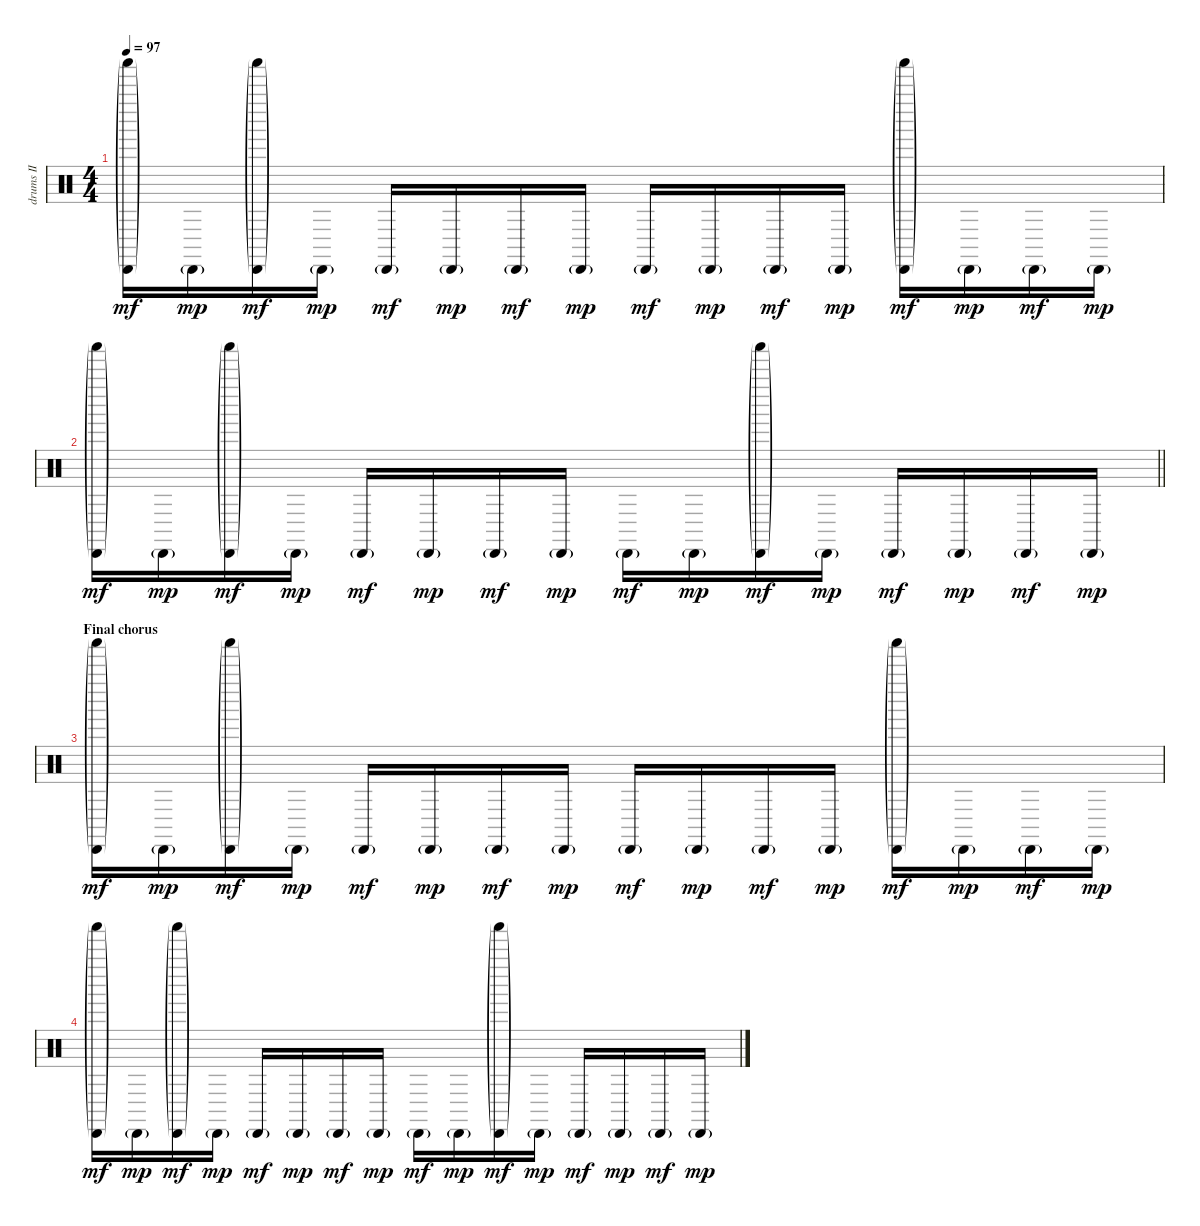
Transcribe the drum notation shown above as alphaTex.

\track ("drums II" "drums II") {instrument percussion}
\staff {score}
\articulation defaults
\ts (4 4)
\tempo 97
\clef neutral
\ks c
("Shaker (hit)"{g} "Cabasa (hit)"{g}).16{dy mf} "Cabasa (hit)"{g}.16{dy mp} ("Shaker (hit)"{g} "Cabasa (hit)"{g}).16{dy mf} "Cabasa (hit)"{g}.16{dy mp} "Cabasa (hit)"{g}.16{dy mf} "Cabasa (hit)"{g}.16{dy mp} "Cabasa (hit)"{g}.16{dy mf} "Cabasa (hit)"{g}.16{dy mp} "Cabasa (hit)"{g}.16{dy mf} "Cabasa (hit)"{g}.16{dy mp} "Cabasa (hit)"{g}.16{dy mf} "Cabasa (hit)"{g}.16{dy mp} ("Shaker (hit)"{g} "Cabasa (hit)"{g}).16{dy mf} "Cabasa (hit)"{g}.16{dy mp} "Cabasa (hit)"{g}.16{dy mf} "Cabasa (hit)"{g}.16{dy mp} |
\barLineRight lightlight
("Shaker (hit)"{g} "Cabasa (hit)"{g}).16{dy mf} "Cabasa (hit)"{g}.16{dy mp} ("Shaker (hit)"{g} "Cabasa (hit)"{g}).16{dy mf} "Cabasa (hit)"{g}.16{dy mp} "Cabasa (hit)"{g}.16{dy mf} "Cabasa (hit)"{g}.16{dy mp} "Cabasa (hit)"{g}.16{dy mf} "Cabasa (hit)"{g}.16{dy mp} "Cabasa (hit)"{g}.16{dy mf} "Cabasa (hit)"{g}.16{dy mp} ("Shaker (hit)"{g} "Cabasa (hit)"{g}).16{dy mf} "Cabasa (hit)"{g}.16{dy mp} "Cabasa (hit)"{g}.16{dy mf} "Cabasa (hit)"{g}.16{dy mp} "Cabasa (hit)"{g}.16{dy mf} "Cabasa (hit)"{g}.16{dy mp} |
\section ("" "Final chorus")
("Shaker (hit)"{g} "Cabasa (hit)"{g}).16{dy mf} "Cabasa (hit)"{g}.16{dy mp} ("Shaker (hit)"{g} "Cabasa (hit)"{g}).16{dy mf} "Cabasa (hit)"{g}.16{dy mp} "Cabasa (hit)"{g}.16{dy mf} "Cabasa (hit)"{g}.16{dy mp} "Cabasa (hit)"{g}.16{dy mf} "Cabasa (hit)"{g}.16{dy mp} "Cabasa (hit)"{g}.16{dy mf} "Cabasa (hit)"{g}.16{dy mp} "Cabasa (hit)"{g}.16{dy mf} "Cabasa (hit)"{g}.16{dy mp} ("Shaker (hit)"{g} "Cabasa (hit)"{g}).16{dy mf} "Cabasa (hit)"{g}.16{dy mp} "Cabasa (hit)"{g}.16{dy mf} "Cabasa (hit)"{g}.16{dy mp} |
("Shaker (hit)"{g} "Cabasa (hit)"{g}).16{dy mf} "Cabasa (hit)"{g}.16{dy mp} ("Shaker (hit)"{g} "Cabasa (hit)"{g}).16{dy mf} "Cabasa (hit)"{g}.16{dy mp} "Cabasa (hit)"{g}.16{dy mf} "Cabasa (hit)"{g}.16{dy mp} "Cabasa (hit)"{g}.16{dy mf} "Cabasa (hit)"{g}.16{dy mp} "Cabasa (hit)"{g}.16{dy mf} "Cabasa (hit)"{g}.16{dy mp} ("Shaker (hit)"{g} "Cabasa (hit)"{g}).16{dy mf} "Cabasa (hit)"{g}.16{dy mp} "Cabasa (hit)"{g}.16{dy mf} "Cabasa (hit)"{g}.16{dy mp} "Cabasa (hit)"{g}.16{dy mf} "Cabasa (hit)"{g}.16{dy mp}
